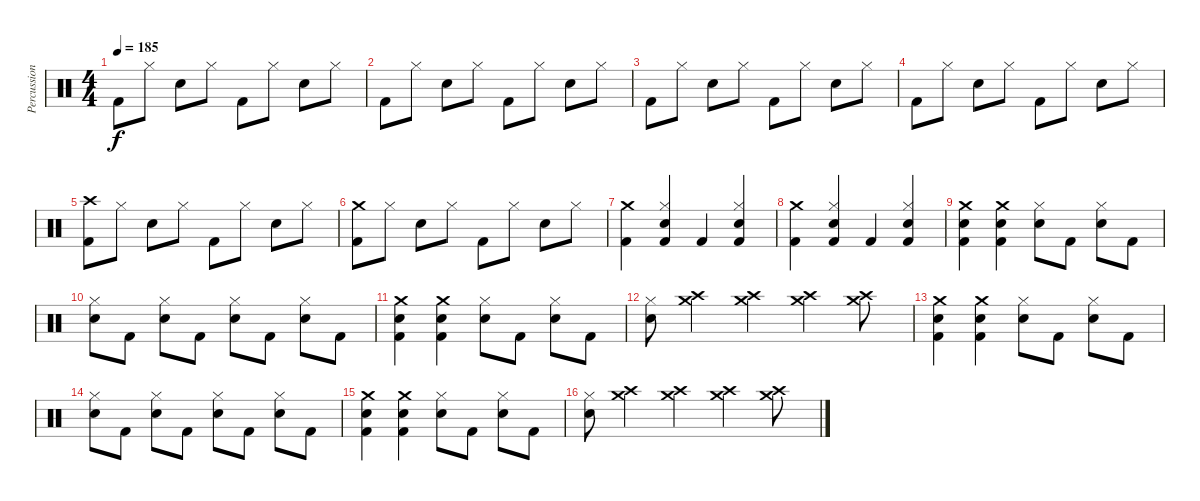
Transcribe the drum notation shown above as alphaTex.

\track ("Percussions" "Percussion") {instrument percussion}
\staff {score}
\articulation defaults
\ts (4 4)
\tempo 185
\clef neutral
\ks c "Kick (hit) 2".8{dy f} "Hi-Hat (closed)".8 "Snare (hit) 2".8 "Hi-Hat (closed)".8 "Kick (hit) 2".8 "Hi-Hat (closed)".8 "Snare (hit) 2".8 "Hi-Hat (closed)".8
|
"Kick (hit) 2".8 "Hi-Hat (closed)".8 "Snare (hit) 2".8 "Hi-Hat (closed)".8 "Kick (hit) 2".8 "Hi-Hat (closed)".8 "Snare (hit) 2".8 "Hi-Hat (closed)".8 |
"Kick (hit) 2".8 "Hi-Hat (closed)".8 "Snare (hit) 2".8 "Hi-Hat (closed)".8 "Kick (hit) 2".8 "Hi-Hat (closed)".8 "Snare (hit) 2".8 "Hi-Hat (closed)".8 |
"Kick (hit) 2".8 "Hi-Hat (closed)".8 "Snare (hit) 2".8 "Hi-Hat (closed)".8 "Kick (hit) 2".8 "Hi-Hat (closed)".8 "Snare (hit) 2".8 "Hi-Hat (closed)".8 |
("Crash high (hit)" "Kick (hit) 2").8 "Hi-Hat (closed)".8 "Snare (hit) 2".8 "Hi-Hat (closed)".8 "Kick (hit) 2".8 "Hi-Hat (closed)".8 "Snare (hit) 2".8 "Hi-Hat (closed)".8 |
("Crash medium (hit)" "Kick (hit) 2").8 "Hi-Hat (closed)".8 "Snare (hit) 2".8 "Hi-Hat (closed)".8 "Kick (hit) 2".8 "Hi-Hat (closed)".8 "Snare (hit) 2".8 "Hi-Hat (closed)".8 |
("Crash medium (hit)" "Kick (hit) 2").4 ("Hi-Hat (closed)" "Snare (hit) 2" "Kick (hit) 2").4 "Kick (hit) 2".4 ("Hi-Hat (closed)" "Snare (hit) 2" "Kick (hit) 2").4 |
("Crash medium (hit)" "Kick (hit) 2").4 ("Hi-Hat (closed)" "Snare (hit) 2" "Kick (hit) 2").4 "Kick (hit) 2".4 ("Hi-Hat (closed)" "Snare (hit) 2" "Kick (hit) 2").4 |
("Crash medium (hit)" "Snare (hit) 2" "Kick (hit) 2").4 ("Crash medium (hit)" "Snare (hit) 2" "Kick (hit) 2").4 ("Hi-Hat (closed)" "Snare (hit) 2").8 "Kick (hit) 2".8 ("Hi-Hat (closed)" "Snare (hit) 2").8 "Kick (hit) 2".8 |
("Hi-Hat (closed)" "Snare (hit) 2").8 "Kick (hit) 2".8 ("Hi-Hat (closed)" "Snare (hit) 2").8 "Kick (hit) 2".8 ("Hi-Hat (closed)" "Snare (hit) 2").8 "Kick (hit) 2".8 ("Hi-Hat (closed)" "Snare (hit) 2").8 "Kick (hit) 2".8 |
("Crash medium (hit)" "Snare (hit) 2" "Kick (hit) 2").4 ("Crash medium (hit)" "Snare (hit) 2" "Kick (hit) 2").4 ("Hi-Hat (closed)" "Snare (hit) 2").8 "Kick (hit) 2".8 ("Hi-Hat (closed)" "Snare (hit) 2").8 "Kick (hit) 2".8 |
("Hi-Hat (closed)" "Snare (hit) 2").8 ("Crash medium (hit)" "Crash high (hit)").4 ("Crash high (hit)" "Crash medium (hit)").4 ("Crash medium (hit)" "Crash high (hit)").4 ("Crash high (hit)" "Crash medium (hit)").8 |
("Crash medium (hit)" "Snare (hit) 2" "Kick (hit) 2").4 ("Crash medium (hit)" "Snare (hit) 2" "Kick (hit) 2").4 ("Hi-Hat (closed)" "Snare (hit) 2").8 "Kick (hit) 2".8 ("Hi-Hat (closed)" "Snare (hit) 2").8 "Kick (hit) 2".8 |
("Hi-Hat (closed)" "Snare (hit) 2").8 "Kick (hit) 2".8 ("Hi-Hat (closed)" "Snare (hit) 2").8 "Kick (hit) 2".8 ("Hi-Hat (closed)" "Snare (hit) 2").8 "Kick (hit) 2".8 ("Hi-Hat (closed)" "Snare (hit) 2").8 "Kick (hit) 2".8 |
("Crash medium (hit)" "Snare (hit) 2" "Kick (hit) 2").4 ("Crash medium (hit)" "Snare (hit) 2" "Kick (hit) 2").4 ("Hi-Hat (closed)" "Snare (hit) 2").8 "Kick (hit) 2".8 ("Hi-Hat (closed)" "Snare (hit) 2").8 "Kick (hit) 2".8 |
("Hi-Hat (closed)" "Snare (hit) 2").8 ("Crash medium (hit)" "Crash high (hit)").4 ("Crash high (hit)" "Crash medium (hit)").4 ("Crash medium (hit)" "Crash high (hit)").4 ("Crash high (hit)" "Crash medium (hit)").8
